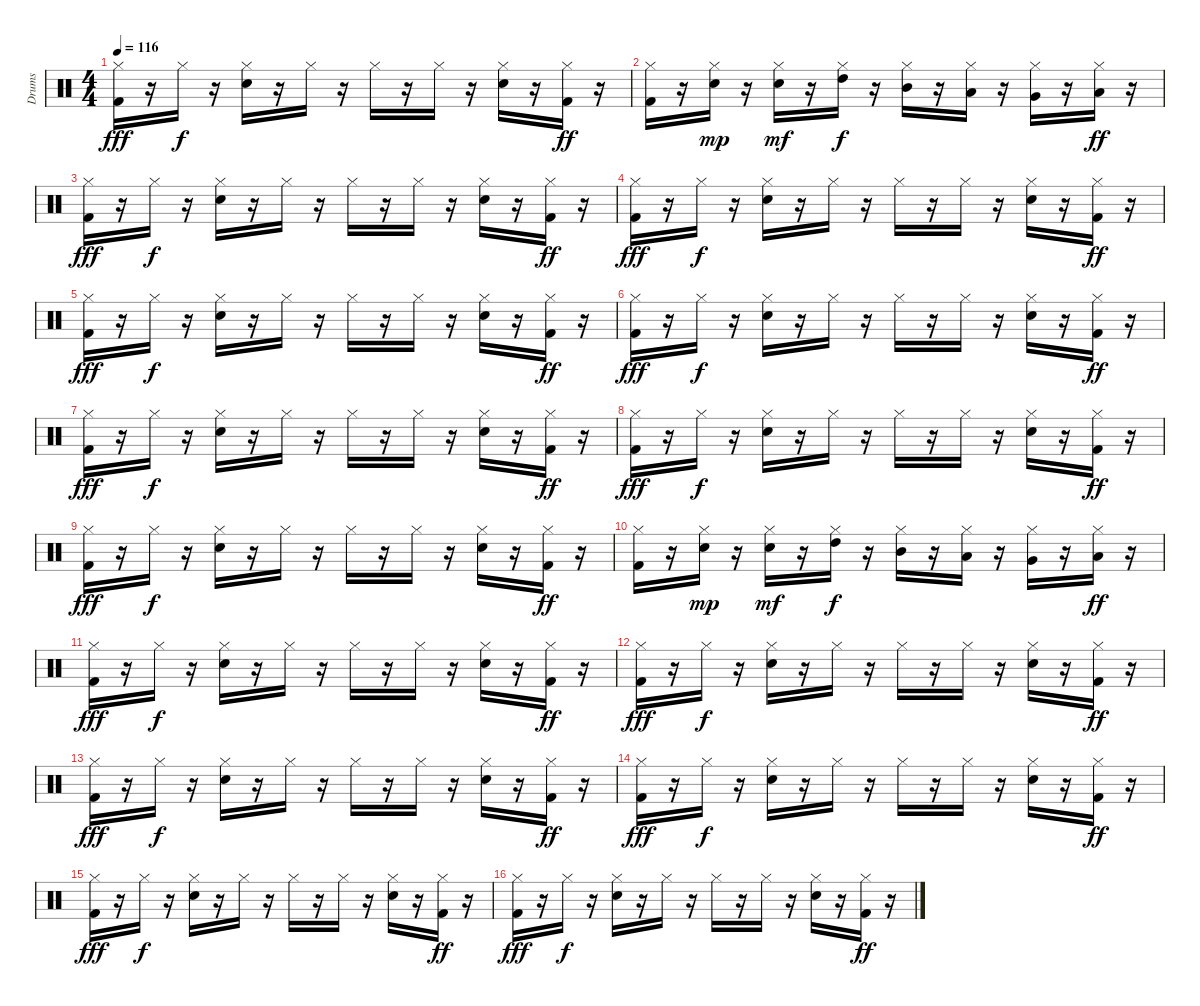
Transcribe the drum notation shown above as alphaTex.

\track ("Drums" "Drums") {instrument percussion}
\staff {score}
\articulation defaults
\ts (4 4)
\tempo 116
\clef neutral
\ks c
("Hi-Hat (closed)" "Kick (hit) 2").16{dy fff} r.16 "Hi-Hat (closed)".16{dy f} r.16 ("Hi-Hat (closed)" "Electric Snare (hit)").16 r.16 "Hi-Hat (closed)".16 r.16 "Hi-Hat (closed)".16 r.16 "Hi-Hat (closed)".16 r.16 ("Hi-Hat (closed)" "Electric Snare (hit)").16 r.16 ("Hi-Hat (closed)" "Kick (hit) 2").16{dy ff} r.16 |
("Hi-Hat (closed)" "Kick (hit) 2").16 r.16 ("Hi-Hat (closed)" "Electric Snare (hit)").16{dy mp} r.16 ("Hi-Hat (closed)" "Snare (hit) 2").16{dy mf} r.16 ("Hi-Hat (closed)" "High Tom (hit)").16{dy f} r.16 ("Hi-Hat (closed)" "Mid Tom (hit)").16 r.16 ("Hi-Hat (closed)" "Low Tom (hit)").16 r.16 ("Hi-Hat (closed)" "Very Low Tom (hit)").16 r.16 ("Hi-Hat (closed)" "Low Floor Tom (hit)").16{dy ff} r.16 |
("Hi-Hat (closed)" "Kick (hit) 2").16{dy fff} r.16 "Hi-Hat (closed)".16{dy f} r.16 ("Hi-Hat (closed)" "Electric Snare (hit)").16 r.16 "Hi-Hat (closed)".16 r.16 "Hi-Hat (closed)".16 r.16 "Hi-Hat (closed)".16 r.16 ("Hi-Hat (closed)" "Electric Snare (hit)").16 r.16 ("Hi-Hat (closed)" "Kick (hit) 2").16{dy ff} r.16 |
("Hi-Hat (closed)" "Kick (hit) 2").16{dy fff} r.16 "Hi-Hat (closed)".16{dy f} r.16 ("Hi-Hat (closed)" "Electric Snare (hit)").16 r.16 "Hi-Hat (closed)".16 r.16 "Hi-Hat (closed)".16 r.16 "Hi-Hat (closed)".16 r.16 ("Hi-Hat (closed)" "Electric Snare (hit)").16 r.16 ("Hi-Hat (closed)" "Kick (hit) 2").16{dy ff} r.16 |
("Hi-Hat (closed)" "Kick (hit) 2").16{dy fff} r.16 "Hi-Hat (closed)".16{dy f} r.16 ("Hi-Hat (closed)" "Electric Snare (hit)").16 r.16 "Hi-Hat (closed)".16 r.16 "Hi-Hat (closed)".16 r.16 "Hi-Hat (closed)".16 r.16 ("Hi-Hat (closed)" "Electric Snare (hit)").16 r.16 ("Hi-Hat (closed)" "Kick (hit) 2").16{dy ff} r.16 |
("Hi-Hat (closed)" "Kick (hit) 2").16{dy fff} r.16 "Hi-Hat (closed)".16{dy f} r.16 ("Hi-Hat (closed)" "Electric Snare (hit)").16 r.16 "Hi-Hat (closed)".16 r.16 "Hi-Hat (closed)".16 r.16 "Hi-Hat (closed)".16 r.16 ("Hi-Hat (closed)" "Electric Snare (hit)").16 r.16 ("Hi-Hat (closed)" "Kick (hit) 2").16{dy ff} r.16 |
("Hi-Hat (closed)" "Kick (hit) 2").16{dy fff} r.16 "Hi-Hat (closed)".16{dy f} r.16 ("Hi-Hat (closed)" "Electric Snare (hit)").16 r.16 "Hi-Hat (closed)".16 r.16 "Hi-Hat (closed)".16 r.16 "Hi-Hat (closed)".16 r.16 ("Hi-Hat (closed)" "Electric Snare (hit)").16 r.16 ("Hi-Hat (closed)" "Kick (hit) 2").16{dy ff} r.16 |
("Hi-Hat (closed)" "Kick (hit) 2").16{dy fff} r.16 "Hi-Hat (closed)".16{dy f} r.16 ("Hi-Hat (closed)" "Electric Snare (hit)").16 r.16 "Hi-Hat (closed)".16 r.16 "Hi-Hat (closed)".16 r.16 "Hi-Hat (closed)".16 r.16 ("Hi-Hat (closed)" "Electric Snare (hit)").16 r.16 ("Hi-Hat (closed)" "Kick (hit) 2").16{dy ff} r.16 |
("Hi-Hat (closed)" "Kick (hit) 2").16{dy fff} r.16 "Hi-Hat (closed)".16{dy f} r.16 ("Hi-Hat (closed)" "Electric Snare (hit)").16 r.16 "Hi-Hat (closed)".16 r.16 "Hi-Hat (closed)".16 r.16 "Hi-Hat (closed)".16 r.16 ("Hi-Hat (closed)" "Electric Snare (hit)").16 r.16 ("Hi-Hat (closed)" "Kick (hit) 2").16{dy ff} r.16 |
("Hi-Hat (closed)" "Kick (hit) 2").16 r.16 ("Hi-Hat (closed)" "Electric Snare (hit)").16{dy mp} r.16 ("Hi-Hat (closed)" "Snare (hit) 2").16{dy mf} r.16 ("Hi-Hat (closed)" "High Tom (hit)").16{dy f} r.16 ("Hi-Hat (closed)" "Mid Tom (hit)").16 r.16 ("Hi-Hat (closed)" "Low Tom (hit)").16 r.16 ("Hi-Hat (closed)" "Very Low Tom (hit)").16 r.16 ("Hi-Hat (closed)" "Low Floor Tom (hit)").16{dy ff} r.16 |
("Hi-Hat (closed)" "Kick (hit) 2").16{dy fff} r.16 "Hi-Hat (closed)".16{dy f} r.16 ("Hi-Hat (closed)" "Electric Snare (hit)").16 r.16 "Hi-Hat (closed)".16 r.16 "Hi-Hat (closed)".16 r.16 "Hi-Hat (closed)".16 r.16 ("Hi-Hat (closed)" "Electric Snare (hit)").16 r.16 ("Hi-Hat (closed)" "Kick (hit) 2").16{dy ff} r.16 |
("Hi-Hat (closed)" "Kick (hit) 2").16{dy fff} r.16 "Hi-Hat (closed)".16{dy f} r.16 ("Hi-Hat (closed)" "Electric Snare (hit)").16 r.16 "Hi-Hat (closed)".16 r.16 "Hi-Hat (closed)".16 r.16 "Hi-Hat (closed)".16 r.16 ("Hi-Hat (closed)" "Electric Snare (hit)").16 r.16 ("Hi-Hat (closed)" "Kick (hit) 2").16{dy ff} r.16 |
("Hi-Hat (closed)" "Kick (hit) 2").16{dy fff} r.16 "Hi-Hat (closed)".16{dy f} r.16 ("Hi-Hat (closed)" "Electric Snare (hit)").16 r.16 "Hi-Hat (closed)".16 r.16 "Hi-Hat (closed)".16 r.16 "Hi-Hat (closed)".16 r.16 ("Hi-Hat (closed)" "Electric Snare (hit)").16 r.16 ("Hi-Hat (closed)" "Kick (hit) 2").16{dy ff} r.16 |
("Hi-Hat (closed)" "Kick (hit) 2").16{dy fff} r.16 "Hi-Hat (closed)".16{dy f} r.16 ("Hi-Hat (closed)" "Electric Snare (hit)").16 r.16 "Hi-Hat (closed)".16 r.16 "Hi-Hat (closed)".16 r.16 "Hi-Hat (closed)".16 r.16 ("Hi-Hat (closed)" "Electric Snare (hit)").16 r.16 ("Hi-Hat (closed)" "Kick (hit) 2").16{dy ff} r.16 |
("Hi-Hat (closed)" "Kick (hit) 2").16{dy fff} r.16 "Hi-Hat (closed)".16{dy f} r.16 ("Hi-Hat (closed)" "Electric Snare (hit)").16 r.16 "Hi-Hat (closed)".16 r.16 "Hi-Hat (closed)".16 r.16 "Hi-Hat (closed)".16 r.16 ("Hi-Hat (closed)" "Electric Snare (hit)").16 r.16 ("Hi-Hat (closed)" "Kick (hit) 2").16{dy ff} r.16 |
("Hi-Hat (closed)" "Kick (hit) 2").16{dy fff} r.16 "Hi-Hat (closed)".16{dy f} r.16 ("Hi-Hat (closed)" "Electric Snare (hit)").16 r.16 "Hi-Hat (closed)".16 r.16 "Hi-Hat (closed)".16 r.16 "Hi-Hat (closed)".16 r.16 ("Hi-Hat (closed)" "Electric Snare (hit)").16 r.16 ("Hi-Hat (closed)" "Kick (hit) 2").16{dy ff} r.16
